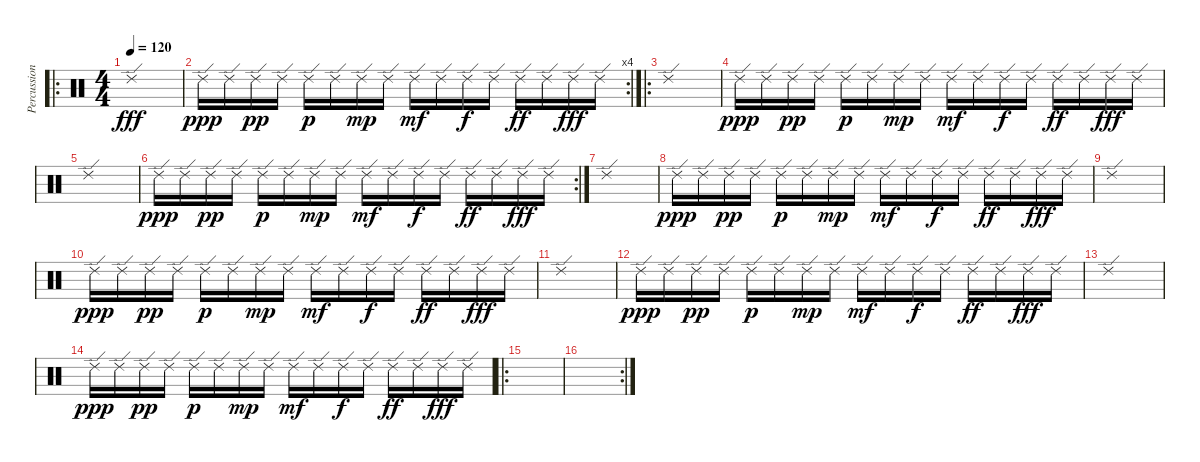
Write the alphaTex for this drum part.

\track ("Percussion" "Percussion") {instrument percussion}
\staff {score}
\articulation defaults
\ro
\ts (4 4)
\tempo 120
\clef neutral
\ks c "Ride (edge) 2".1{dy fff}
|
\rc 4 "Ride (edge) 2".16{dy ppp} "Ride (edge) 2".16 "Ride (edge) 2".16{dy pp} "Ride (edge) 2".16 "Ride (edge) 2".16{dy p} "Ride (edge) 2".16 "Ride (edge) 2".16{dy mp} "Ride (edge) 2".16 "Ride (edge) 2".16{dy mf} "Ride (edge) 2".16 "Ride (edge) 2".16{dy f} "Ride (edge) 2".16 "Ride (edge) 2".16{dy ff} "Ride (edge) 2".16 "Ride (edge) 2".16{dy fff} "Ride (edge) 2".16
|
\ro "Ride (edge) 2".1
|
"Ride (edge) 2".16{dy ppp} "Ride (edge) 2".16 "Ride (edge) 2".16{dy pp} "Ride (edge) 2".16 "Ride (edge) 2".16{dy p} "Ride (edge) 2".16 "Ride (edge) 2".16{dy mp} "Ride (edge) 2".16 "Ride (edge) 2".16{dy mf} "Ride (edge) 2".16 "Ride (edge) 2".16{dy f} "Ride (edge) 2".16 "Ride (edge) 2".16{dy ff} "Ride (edge) 2".16 "Ride (edge) 2".16{dy fff} "Ride (edge) 2".16 |
"Ride (edge) 2".1 |
\rc 2 "Ride (edge) 2".16{dy ppp} "Ride (edge) 2".16 "Ride (edge) 2".16{dy pp} "Ride (edge) 2".16 "Ride (edge) 2".16{dy p} "Ride (edge) 2".16 "Ride (edge) 2".16{dy mp} "Ride (edge) 2".16 "Ride (edge) 2".16{dy mf} "Ride (edge) 2".16 "Ride (edge) 2".16{dy f} "Ride (edge) 2".16 "Ride (edge) 2".16{dy ff} "Ride (edge) 2".16 "Ride (edge) 2".16{dy fff} "Ride (edge) 2".16
|
"Ride (edge) 2".1 |
"Ride (edge) 2".16{dy ppp} "Ride (edge) 2".16 "Ride (edge) 2".16{dy pp} "Ride (edge) 2".16 "Ride (edge) 2".16{dy p} "Ride (edge) 2".16 "Ride (edge) 2".16{dy mp} "Ride (edge) 2".16 "Ride (edge) 2".16{dy mf} "Ride (edge) 2".16 "Ride (edge) 2".16{dy f} "Ride (edge) 2".16 "Ride (edge) 2".16{dy ff} "Ride (edge) 2".16 "Ride (edge) 2".16{dy fff} "Ride (edge) 2".16 |
"Ride (edge) 2".1 |
"Ride (edge) 2".16{dy ppp} "Ride (edge) 2".16 "Ride (edge) 2".16{dy pp} "Ride (edge) 2".16 "Ride (edge) 2".16{dy p} "Ride (edge) 2".16 "Ride (edge) 2".16{dy mp} "Ride (edge) 2".16 "Ride (edge) 2".16{dy mf} "Ride (edge) 2".16 "Ride (edge) 2".16{dy f} "Ride (edge) 2".16 "Ride (edge) 2".16{dy ff} "Ride (edge) 2".16 "Ride (edge) 2".16{dy fff} "Ride (edge) 2".16 |
"Ride (edge) 2".1 |
"Ride (edge) 2".16{dy ppp} "Ride (edge) 2".16 "Ride (edge) 2".16{dy pp} "Ride (edge) 2".16 "Ride (edge) 2".16{dy p} "Ride (edge) 2".16 "Ride (edge) 2".16{dy mp} "Ride (edge) 2".16 "Ride (edge) 2".16{dy mf} "Ride (edge) 2".16 "Ride (edge) 2".16{dy f} "Ride (edge) 2".16 "Ride (edge) 2".16{dy ff} "Ride (edge) 2".16 "Ride (edge) 2".16{dy fff} "Ride (edge) 2".16 |
"Ride (edge) 2".1 |
"Ride (edge) 2".16{dy ppp} "Ride (edge) 2".16 "Ride (edge) 2".16{dy pp} "Ride (edge) 2".16 "Ride (edge) 2".16{dy p} "Ride (edge) 2".16 "Ride (edge) 2".16{dy mp} "Ride (edge) 2".16 "Ride (edge) 2".16{dy mf} "Ride (edge) 2".16 "Ride (edge) 2".16{dy f} "Ride (edge) 2".16 "Ride (edge) 2".16{dy ff} "Ride (edge) 2".16 "Ride (edge) 2".16{dy fff} "Ride (edge) 2".16 |
\ro
|
\rc 2
